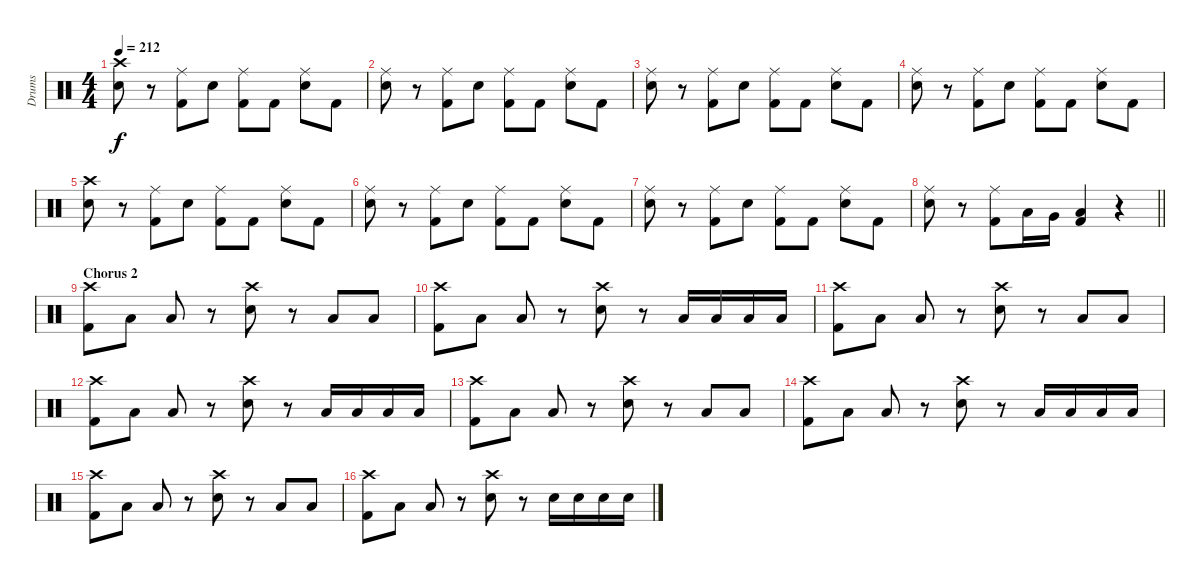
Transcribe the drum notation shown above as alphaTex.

\track ("Drums" "Drums") {instrument percussion}
\staff {score}
\articulation defaults
\ts (4 4)
\tempo 212
\clef neutral
\ks c
("Crash high (hit)" "Snare (hit) 2").8{dy f} r.8 ("Ride (middle)" "Kick (hit) 2").8 "Snare (hit) 2".8 ("Ride (middle)" "Kick (hit) 2").8 "Kick (hit) 2".8 ("Ride (middle)" "Snare (hit) 2").8 "Kick (hit) 2".8 |
("Ride (middle)" "Snare (hit) 2").8 r.8 ("Ride (middle)" "Kick (hit) 2").8 "Snare (hit) 2".8 ("Ride (middle)" "Kick (hit) 2").8 "Kick (hit) 2".8 ("Ride (middle)" "Snare (hit) 2").8 "Kick (hit) 2".8 |
("Ride (middle)" "Snare (hit) 2").8 r.8 ("Ride (middle)" "Kick (hit) 2").8 "Snare (hit) 2".8 ("Ride (middle)" "Kick (hit) 2").8 "Kick (hit) 2".8 ("Ride (middle)" "Snare (hit) 2").8 "Kick (hit) 2".8 |
("Ride (middle)" "Snare (hit) 2").8 r.8 ("Ride (middle)" "Kick (hit) 2").8 "Snare (hit) 2".8 ("Ride (middle)" "Kick (hit) 2").8 "Kick (hit) 2".8 ("Ride (middle)" "Snare (hit) 2").8 "Kick (hit) 2".8 |
("Crash high (hit)" "Snare (hit) 2").8 r.8 ("Ride (middle)" "Kick (hit) 2").8 "Snare (hit) 2".8 ("Ride (middle)" "Kick (hit) 2").8 "Kick (hit) 2".8 ("Ride (middle)" "Snare (hit) 2").8 "Kick (hit) 2".8 |
("Ride (middle)" "Snare (hit) 2").8 r.8 ("Ride (middle)" "Kick (hit) 2").8 "Snare (hit) 2".8 ("Ride (middle)" "Kick (hit) 2").8 "Kick (hit) 2".8 ("Ride (middle)" "Snare (hit) 2").8 "Kick (hit) 2".8 |
("Ride (middle)" "Snare (hit) 2").8 r.8 ("Ride (middle)" "Kick (hit) 2").8 "Snare (hit) 2".8 ("Ride (middle)" "Kick (hit) 2").8 "Kick (hit) 2".8 ("Ride (middle)" "Snare (hit) 2").8 "Kick (hit) 2".8 |
\barLineRight lightlight
("Ride (middle)" "Snare (hit) 2").8 r.8 ("Ride (middle)" "Kick (hit) 2").8 "Low Tom (hit)".16 "Very Low Tom (hit)".16 ("Low Floor Tom (hit)" "Kick (hit) 2").4 r.4 |
\section ("" "Chorus 2")
("Crash high (hit)" "Kick (hit) 2").8 "Low Floor Tom (hit)".8 "Low Floor Tom (hit)".8 r.8 ("Crash high (hit)" "Snare (hit) 2").8 r.8 "Low Floor Tom (hit)".8 "Low Floor Tom (hit)".8 |
("Crash high (hit)" "Kick (hit) 2").8 "Low Floor Tom (hit)".8 "Low Floor Tom (hit)".8 r.8 ("Crash high (hit)" "Snare (hit) 2").8 r.8 "Low Floor Tom (hit)".16 "Low Floor Tom (hit)".16 "Low Floor Tom (hit)".16 "Low Floor Tom (hit)".16 |
("Crash high (hit)" "Kick (hit) 2").8 "Low Floor Tom (hit)".8 "Low Floor Tom (hit)".8 r.8 ("Crash high (hit)" "Snare (hit) 2").8 r.8 "Low Floor Tom (hit)".8 "Low Floor Tom (hit)".8 |
("Crash high (hit)" "Kick (hit) 2").8 "Low Floor Tom (hit)".8 "Low Floor Tom (hit)".8 r.8 ("Crash high (hit)" "Snare (hit) 2").8 r.8 "Low Floor Tom (hit)".16 "Low Floor Tom (hit)".16 "Low Floor Tom (hit)".16 "Low Floor Tom (hit)".16 |
("Crash high (hit)" "Kick (hit) 2").8 "Low Floor Tom (hit)".8 "Low Floor Tom (hit)".8 r.8 ("Crash high (hit)" "Snare (hit) 2").8 r.8 "Low Floor Tom (hit)".8 "Low Floor Tom (hit)".8 |
("Crash high (hit)" "Kick (hit) 2").8 "Low Floor Tom (hit)".8 "Low Floor Tom (hit)".8 r.8 ("Crash high (hit)" "Snare (hit) 2").8 r.8 "Low Floor Tom (hit)".16 "Low Floor Tom (hit)".16 "Low Floor Tom (hit)".16 "Low Floor Tom (hit)".16 |
("Crash high (hit)" "Kick (hit) 2").8 "Low Floor Tom (hit)".8 "Low Floor Tom (hit)".8 r.8 ("Crash high (hit)" "Snare (hit) 2").8 r.8 "Low Floor Tom (hit)".8 "Low Floor Tom (hit)".8 |
("Crash high (hit)" "Kick (hit) 2").8 "Low Floor Tom (hit)".8 "Low Floor Tom (hit)".8 r.8 ("Crash high (hit)" "Snare (hit) 2").8 r.8 "Snare (hit) 2".16 "Snare (hit) 2".16 "Snare (hit) 2".16 "Snare (hit) 2".16
